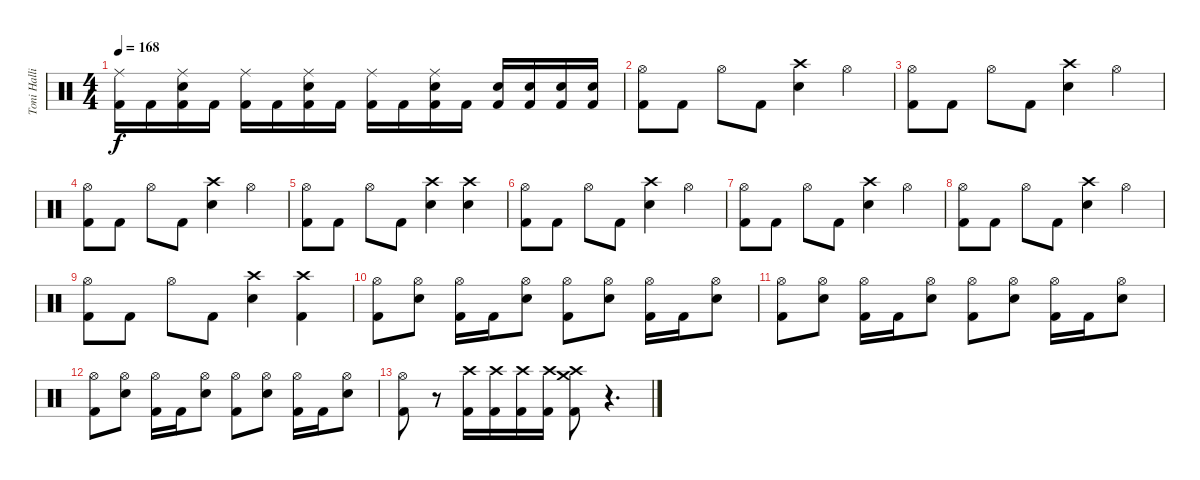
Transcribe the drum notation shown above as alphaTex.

\track ("Toni Hallio" "Toni Halli") {instrument percussion}
\staff {score}
\articulation defaults
\ts (4 4)
\tempo 168
\clef neutral
\ks c
("Ride (middle)" "Kick (hit) 2").16{dy f} "Kick (hit) 2".16 ("Ride (middle)" "Snare (hit) 2" "Kick (hit) 2").16 "Kick (hit) 2".16 ("Ride (middle)" "Kick (hit) 2").16 "Kick (hit) 2".16 ("Ride (middle)" "Snare (hit) 2" "Kick (hit) 2").16 "Kick (hit) 2".16 ("Ride (middle)" "Kick (hit) 2").16 "Kick (hit) 2".16 ("Ride (middle)" "Snare (hit) 2" "Kick (hit) 2").16 "Kick (hit) 2".16 ("Snare (hit) 2" "Kick (hit) 2").16 ("Snare (hit) 2" "Kick (hit) 2").16 ("Snare (hit) 2" "Kick (hit) 2").16 ("Snare (hit) 2" "Kick (hit) 2").16 |
("Hi-Hat (open)" "Kick (hit) 2").8 "Kick (hit) 2".8 "Hi-Hat (open)".8 "Kick (hit) 2".8 ("Crash high (hit)" "Snare (hit) 2").4 "Hi-Hat (open)".4 |
("Hi-Hat (open)" "Kick (hit) 2").8 "Kick (hit) 2".8 "Hi-Hat (open)".8 "Kick (hit) 2".8 ("Crash high (hit)" "Snare (hit) 2").4 "Hi-Hat (open)".4 |
("Hi-Hat (open)" "Kick (hit) 2").8 "Kick (hit) 2".8 "Hi-Hat (open)".8 "Kick (hit) 2".8 ("Crash high (hit)" "Snare (hit) 2").4 "Hi-Hat (open)".4 |
("Hi-Hat (open)" "Kick (hit) 2").8 "Kick (hit) 2".8 "Hi-Hat (open)".8 "Kick (hit) 2".8 ("Crash high (hit)" "Snare (hit) 2").4 ("Crash high (hit)" "Snare (hit) 2").4 |
("Hi-Hat (open)" "Kick (hit) 2").8 "Kick (hit) 2".8 "Hi-Hat (open)".8 "Kick (hit) 2".8 ("Crash high (hit)" "Snare (hit) 2").4 "Hi-Hat (open)".4 |
("Hi-Hat (open)" "Kick (hit) 2").8 "Kick (hit) 2".8 "Hi-Hat (open)".8 "Kick (hit) 2".8 ("Crash high (hit)" "Snare (hit) 2").4 "Hi-Hat (open)".4 |
("Hi-Hat (open)" "Kick (hit) 2").8 "Kick (hit) 2".8 "Hi-Hat (open)".8 "Kick (hit) 2".8 ("Crash high (hit)" "Snare (hit) 2").4 "Hi-Hat (open)".4 |
("Hi-Hat (open)" "Kick (hit) 2").8 "Kick (hit) 2".8 "Hi-Hat (open)".8 "Kick (hit) 2".8 ("Crash high (hit)" "Snare (hit) 2").4 ("Crash high (hit)" "Kick (hit) 2").4 |
("Hi-Hat (open)" "Kick (hit) 2").8 ("Hi-Hat (open)" "Snare (hit) 2").8 ("Hi-Hat (open)" "Kick (hit) 2").16 "Kick (hit) 2".16 ("Hi-Hat (open)" "Snare (hit) 2").8 ("Hi-Hat (open)" "Kick (hit) 2").8 ("Hi-Hat (open)" "Snare (hit) 2").8 ("Hi-Hat (open)" "Kick (hit) 2").16 "Kick (hit) 2".16 ("Hi-Hat (open)" "Snare (hit) 2").8 |
("Hi-Hat (open)" "Kick (hit) 2").8 ("Hi-Hat (open)" "Snare (hit) 2").8 ("Hi-Hat (open)" "Kick (hit) 2").16 "Kick (hit) 2".16 ("Hi-Hat (open)" "Snare (hit) 2").8 ("Hi-Hat (open)" "Kick (hit) 2").8 ("Hi-Hat (open)" "Snare (hit) 2").8 ("Hi-Hat (open)" "Kick (hit) 2").16 "Kick (hit) 2".16 ("Hi-Hat (open)" "Snare (hit) 2").8 |
("Hi-Hat (open)" "Kick (hit) 2").8 ("Hi-Hat (open)" "Snare (hit) 2").8 ("Hi-Hat (open)" "Kick (hit) 2").16 "Kick (hit) 2".16 ("Hi-Hat (open)" "Snare (hit) 2").8 ("Hi-Hat (open)" "Kick (hit) 2").8 ("Hi-Hat (open)" "Snare (hit) 2").8 ("Hi-Hat (open)" "Kick (hit) 2").16 "Kick (hit) 2".16 ("Hi-Hat (open)" "Snare (hit) 2").8 |
("Hi-Hat (open)" "Kick (hit) 2").8 r.8 ("Crash high (hit)" "Kick (hit) 2").16 ("Crash high (hit)" "Kick (hit) 2").16 ("Crash high (hit)" "Kick (hit) 2").16 ("Crash high (hit)" "Kick (hit) 2").16 ("Crash high (hit)" "Crash medium (hit)" "Kick (hit) 2").8 r.4{d}
